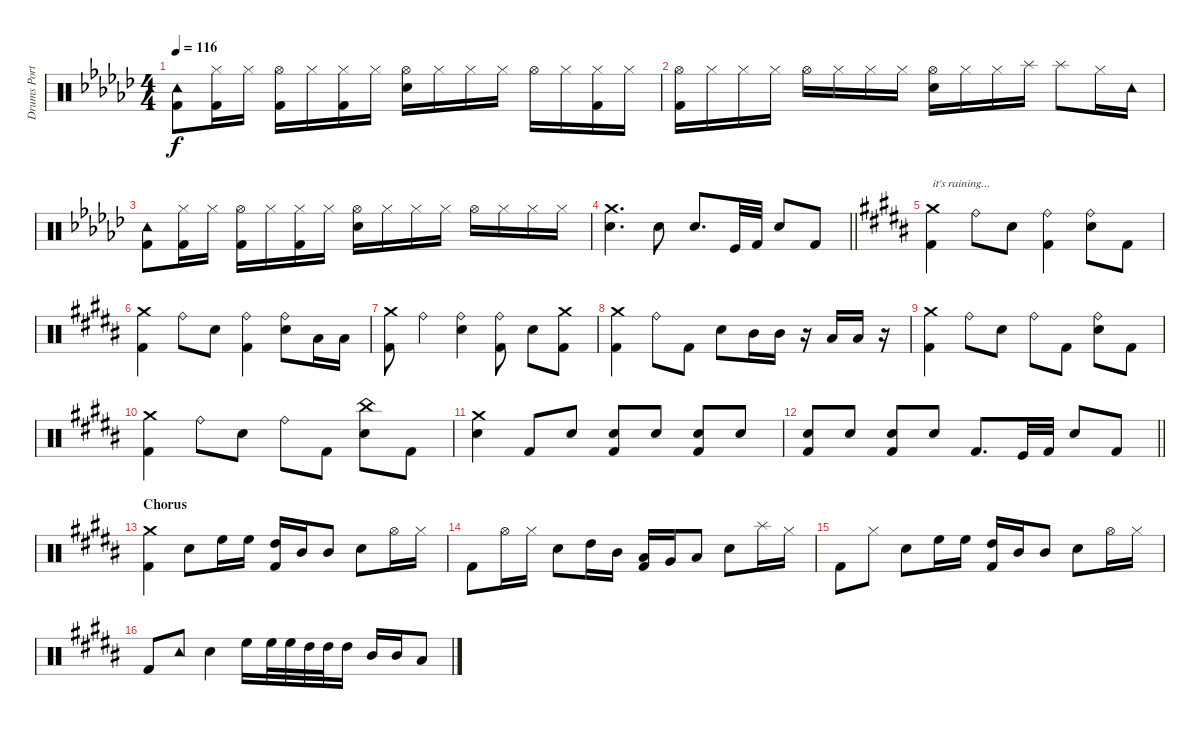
\track ("Drums Portnoy" "Drums Port") {instrument percussion}
\staff {score}
\articulation defaults
\ts (4 4)
\tempo 116
\clef neutral
\ks gb
("Tambourine (hit)" "Kick (hit) 2").8{dy f} ("Hi-Hat (closed)" "Kick (hit) 2").16 "Hi-Hat (closed)".16 ("Hi-Hat (open)" "Kick (hit) 2").16 "Hi-Hat (closed)".16 ("Hi-Hat (closed)" "Kick (hit) 2").16 "Hi-Hat (closed)".16 ("Hi-Hat (open)" "Snare (hit) 2").16 "Hi-Hat (closed)".16 "Hi-Hat (closed)".16 "Hi-Hat (closed)".16 "Hi-Hat (open)".16 "Hi-Hat (closed)".16 ("Hi-Hat (closed)" "Kick (hit) 2").16 "Hi-Hat (closed)".16 |
("Hi-Hat (open)" "Kick (hit) 2").16 "Hi-Hat (closed)".16 "Hi-Hat (closed)".16 "Hi-Hat (closed)".16 "Hi-Hat (open)".16 "Hi-Hat (closed)".16 "Hi-Hat (closed)".16 "Hi-Hat (closed)".16 ("Hi-Hat (open)" "Snare (hit) 2").16 "Hi-Hat (closed)".16 "Hi-Hat (closed)".16 "Splash (hit)".16 "Splash (hit)".8 "Hi-Hat (closed)".16 "Tambourine (hit)".16 |
("Tambourine (hit)" "Kick (hit) 2").8 ("Hi-Hat (closed)" "Kick (hit) 2").16 "Hi-Hat (closed)".16 ("Hi-Hat (open)" "Kick (hit) 2").16 "Hi-Hat (closed)".16 ("Hi-Hat (closed)" "Kick (hit) 2").16 "Hi-Hat (closed)".16 ("Hi-Hat (open)" "Snare (hit) 2").16 "Hi-Hat (closed)".16 "Hi-Hat (closed)".16 "Hi-Hat (closed)".16 "Hi-Hat (open)".16 "Hi-Hat (closed)".16 "Hi-Hat (closed)".16 "Hi-Hat (closed)".16 |
\barLineRight lightlight
("Crash medium (hit)" "Snare (hit) 2").4{d} "Snare (hit) 2".8 "Snare (hit) 2".8{d} "Kick (hit)".32 "Kick (hit) 2".32 "Snare (hit) 2".8 "Kick (hit) 2".8 |
\ks b
("Crash medium (hit)" "Kick (hit) 2").4{txt "it's raining..."} "Ride (bell)".8 "Snare (hit) 2".8 ("Ride (bell)" "Kick (hit) 2").4 ("Ride (bell)" "Snare (hit) 2").8 "Kick (hit) 2".8 |
\ks g#minor
("Crash medium (hit)" "Kick (hit) 2").4 "Ride (bell)".8 "Snare (hit) 2".8 ("Ride (bell)" "Kick (hit) 2").4 ("Ride (bell)" "Snare (hit) 2").8 "Low Tom (hit)".16 "Low Tom (hit)".16 |
("Crash medium (hit)" "Kick (hit) 2").8 "Ride (bell)".4 ("Ride (bell)" "Snare (hit) 2").4 ("Ride (bell)" "Kick (hit) 2").8 "Snare (hit) 2".8 ("Crash medium (hit)" "Kick (hit) 2").8 |
("Crash medium (hit)" "Kick (hit) 2").4 "Ride (bell)".8 "Kick (hit) 2".8 "Snare (hit) 2".8 "Mid Tom (hit)".16 "Mid Tom (hit)".16 r.16 "Low Tom (hit)".16 "Low Tom (hit)".16 r.16 |
\ks b
("Crash medium (hit)" "Kick (hit) 2").4 "Ride (bell)".8 "Snare (hit) 2".8 "Ride (bell)".8 "Kick (hit) 2".8 ("Ride (bell)" "Snare (hit) 2").8 "Kick (hit) 2".8 |
\ks g#minor
("Crash medium (hit)" "Kick (hit) 2").4 "Ride (bell)".8 "Snare (hit) 2".8 "Ride (bell)".8 "Kick (hit) 2".8 ("China (hit)" "Snare (hit) 2").8 "Kick (hit) 2".8 |
("Crash medium (hit)" "Snare (hit) 2").4 "Kick (hit) 2".8 "Snare (hit) 2".8 ("Snare (hit) 2" "Kick (hit) 2").8 "Snare (hit) 2".8 ("Snare (hit) 2" "Kick (hit) 2").8 "Snare (hit) 2".8 |
\barLineRight lightlight
\ks b
("Snare (hit) 2" "Kick (hit) 2").8 "Snare (hit) 2".8 ("Snare (hit) 2" "Kick (hit) 2").8 "Snare (hit) 2".8 "Kick (hit) 2".8{d} "Kick (hit)".32 "Kick (hit) 2".32 "Snare (hit) 2".8 "Kick (hit) 2".8 |
\section ("" "Chorus")
\ks g#minor
("Crash medium (hit)" "Kick (hit) 2").4 "Snare (hit) 2".8 "High Floor Tom (hit)".16 "High Floor Tom (hit)".16 ("High Tom (hit)" "Kick (hit) 2").16 "Mid Tom (hit)".16 "Mid Tom (hit)".8 "Snare (hit) 2".8 "Hi-Hat (open)".16 "Hi-Hat (closed)".16 |
"Kick (hit) 2".8 "Hi-Hat (open)".16 "Hi-Hat (closed)".16 "Snare (hit) 2".8 "High Tom (hit)".16 "Mid Tom (hit)".16 ("Low Tom (hit)" "Kick (hit) 2").16 "Very Low Tom (hit)".16 "Low Floor Tom (hit)".8 "Snare (hit) 2".8 "Splash (hit)".16 "Hi-Hat (closed)".16 |
\ks b "Kick (hit) 2".8 "Hi-Hat (closed)".8 "Snare (hit) 2".8 "High Floor Tom (hit)".16 "High Floor Tom (hit)".16
("High Tom (hit)" "Kick (hit) 2").16 "Mid Tom (hit)".16 "Mid Tom (hit)".8 "Snare (hit) 2".8 "Hi-Hat (open)".16 "Hi-Hat (closed)".16 |
\ks g#minor "Kick (hit) 2".8 "Tambourine (hit)".8 "Snare (hit) 2".4 "High Floor Tom (hit)".16 "High Floor Tom (hit)".32 "High Floor Tom (hit)".32 "High Tom (hit)".32 "High Tom (hit)".32 "High Tom (hit)".16 "Mid Tom (hit)".16 "Mid Tom (hit)".16 "Low Tom (hit)".8
